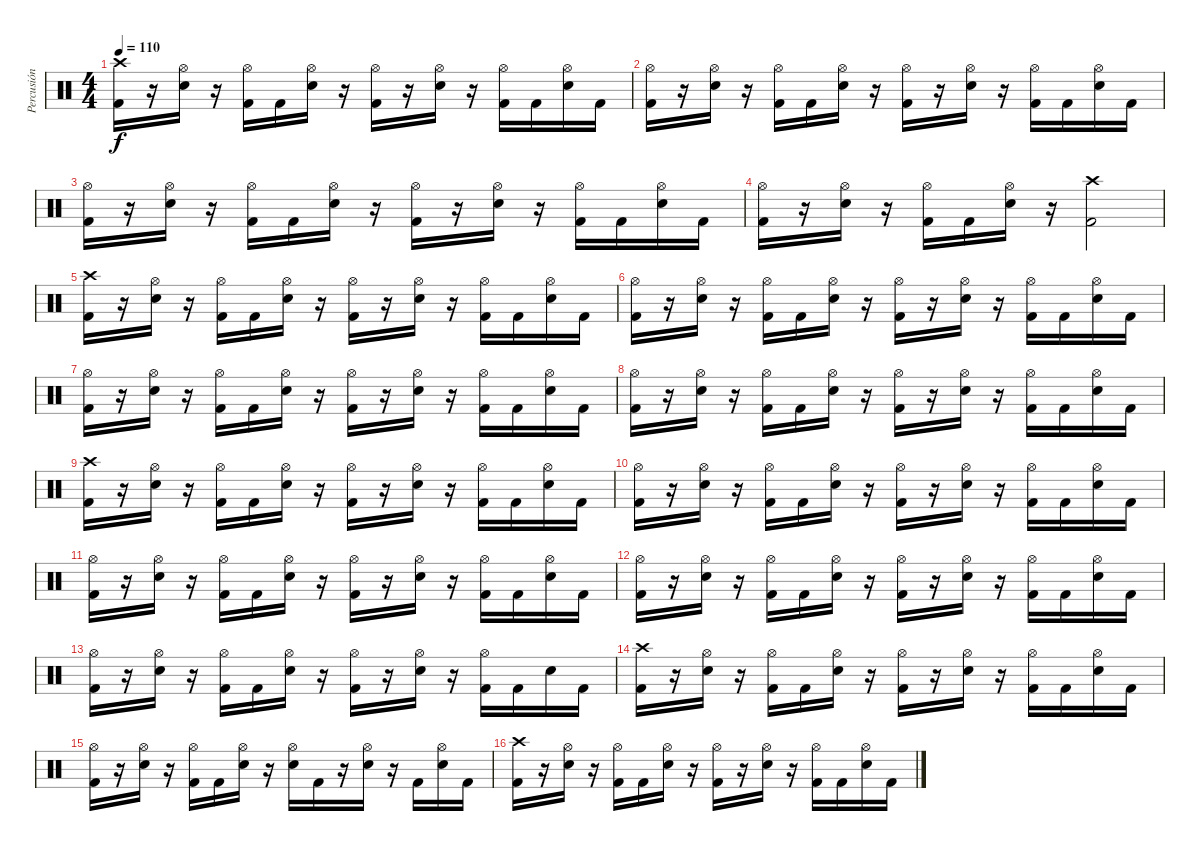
\track ("Percusión" "Percusión") {instrument percussion}
\staff {score}
\articulation defaults
\ts (4 4)
\tempo 110
\clef neutral
\ks c
("Crash high (hit)" "Kick (hit) 2").16{dy f} r.16 ("Hi-Hat (open)" "Electric Snare (hit)").16 r.16 ("Hi-Hat (open)" "Kick (hit) 2").16 "Kick (hit) 2".16 ("Hi-Hat (open)" "Electric Snare (hit)").16 r.16 ("Hi-Hat (open)" "Kick (hit) 2").16 r.16 ("Hi-Hat (open)" "Electric Snare (hit)").16 r.16 ("Hi-Hat (open)" "Kick (hit) 2").16 "Kick (hit) 2".16 ("Hi-Hat (open)" "Electric Snare (hit)").16 "Kick (hit) 2".16 |
("Hi-Hat (open)" "Kick (hit) 2").16 r.16 ("Hi-Hat (open)" "Electric Snare (hit)").16 r.16 ("Hi-Hat (open)" "Kick (hit) 2").16 "Kick (hit) 2".16 ("Hi-Hat (open)" "Electric Snare (hit)").16 r.16 ("Hi-Hat (open)" "Kick (hit) 2").16 r.16 ("Hi-Hat (open)" "Electric Snare (hit)").16 r.16 ("Hi-Hat (open)" "Kick (hit) 2").16 "Kick (hit) 2".16 ("Hi-Hat (open)" "Electric Snare (hit)").16 "Kick (hit) 2".16 |
("Hi-Hat (open)" "Kick (hit) 2").16 r.16 ("Hi-Hat (open)" "Electric Snare (hit)").16 r.16 ("Hi-Hat (open)" "Kick (hit) 2").16 "Kick (hit) 2".16 ("Hi-Hat (open)" "Electric Snare (hit)").16 r.16 ("Hi-Hat (open)" "Kick (hit) 2").16 r.16 ("Hi-Hat (open)" "Electric Snare (hit)").16 r.16 ("Hi-Hat (open)" "Kick (hit) 2").16 "Kick (hit) 2".16 ("Hi-Hat (open)" "Electric Snare (hit)").16 "Kick (hit) 2".16 |
("Hi-Hat (open)" "Kick (hit) 2").16 r.16 ("Hi-Hat (open)" "Electric Snare (hit)").16 r.16 ("Hi-Hat (open)" "Kick (hit) 2").16 "Kick (hit) 2".16 ("Hi-Hat (open)" "Electric Snare (hit)").16 r.16 ("Crash high (hit)" "Kick (hit) 2").2 |
("Crash high (hit)" "Kick (hit) 2").16 r.16 ("Hi-Hat (open)" "Electric Snare (hit)").16 r.16 ("Hi-Hat (open)" "Kick (hit) 2").16 "Kick (hit) 2".16 ("Hi-Hat (open)" "Electric Snare (hit)").16 r.16 ("Hi-Hat (open)" "Kick (hit) 2").16 r.16 ("Hi-Hat (open)" "Electric Snare (hit)").16 r.16 ("Hi-Hat (open)" "Kick (hit) 2").16 "Kick (hit) 2".16 ("Hi-Hat (open)" "Electric Snare (hit)").16 "Kick (hit) 2".16 |
("Hi-Hat (open)" "Kick (hit) 2").16 r.16 ("Hi-Hat (open)" "Electric Snare (hit)").16 r.16 ("Hi-Hat (open)" "Kick (hit) 2").16 "Kick (hit) 2".16 ("Hi-Hat (open)" "Electric Snare (hit)").16 r.16 ("Hi-Hat (open)" "Kick (hit) 2").16 r.16 ("Hi-Hat (open)" "Electric Snare (hit)").16 r.16 ("Hi-Hat (open)" "Kick (hit) 2").16 "Kick (hit) 2".16 ("Hi-Hat (open)" "Electric Snare (hit)").16 "Kick (hit) 2".16 |
("Hi-Hat (open)" "Kick (hit) 2").16 r.16 ("Hi-Hat (open)" "Electric Snare (hit)").16 r.16 ("Hi-Hat (open)" "Kick (hit) 2").16 "Kick (hit) 2".16 ("Hi-Hat (open)" "Electric Snare (hit)").16 r.16 ("Hi-Hat (open)" "Kick (hit) 2").16 r.16 ("Hi-Hat (open)" "Electric Snare (hit)").16 r.16 ("Hi-Hat (open)" "Kick (hit) 2").16 "Kick (hit) 2".16 ("Hi-Hat (open)" "Electric Snare (hit)").16 "Kick (hit) 2".16 |
("Hi-Hat (open)" "Kick (hit) 2").16 r.16 ("Hi-Hat (open)" "Electric Snare (hit)").16 r.16 ("Hi-Hat (open)" "Kick (hit) 2").16 "Kick (hit) 2".16 ("Hi-Hat (open)" "Electric Snare (hit)").16 r.16 ("Hi-Hat (open)" "Kick (hit) 2").16 r.16 ("Hi-Hat (open)" "Electric Snare (hit)").16 r.16 ("Hi-Hat (open)" "Kick (hit) 2").16 "Kick (hit) 2".16 ("Hi-Hat (open)" "Electric Snare (hit)").16 "Kick (hit) 2".16 |
("Crash high (hit)" "Kick (hit) 2").16 r.16 ("Hi-Hat (open)" "Electric Snare (hit)").16 r.16 ("Hi-Hat (open)" "Kick (hit) 2").16 "Kick (hit) 2".16 ("Hi-Hat (open)" "Electric Snare (hit)").16 r.16 ("Hi-Hat (open)" "Kick (hit) 2").16 r.16 ("Hi-Hat (open)" "Electric Snare (hit)").16 r.16 ("Hi-Hat (open)" "Kick (hit) 2").16 "Kick (hit) 2".16 ("Hi-Hat (open)" "Electric Snare (hit)").16 "Kick (hit) 2".16 |
("Hi-Hat (open)" "Kick (hit) 2").16 r.16 ("Hi-Hat (open)" "Electric Snare (hit)").16 r.16 ("Hi-Hat (open)" "Kick (hit) 2").16 "Kick (hit) 2".16 ("Hi-Hat (open)" "Electric Snare (hit)").16 r.16 ("Hi-Hat (open)" "Kick (hit) 2").16 r.16 ("Hi-Hat (open)" "Electric Snare (hit)").16 r.16 ("Hi-Hat (open)" "Kick (hit) 2").16 "Kick (hit) 2".16 ("Hi-Hat (open)" "Electric Snare (hit)").16 "Kick (hit) 2".16 |
("Hi-Hat (open)" "Kick (hit) 2").16 r.16 ("Hi-Hat (open)" "Electric Snare (hit)").16 r.16 ("Hi-Hat (open)" "Kick (hit) 2").16 "Kick (hit) 2".16 ("Hi-Hat (open)" "Electric Snare (hit)").16 r.16 ("Hi-Hat (open)" "Kick (hit) 2").16 r.16 ("Hi-Hat (open)" "Electric Snare (hit)").16 r.16 ("Hi-Hat (open)" "Kick (hit) 2").16 "Kick (hit) 2".16 ("Hi-Hat (open)" "Electric Snare (hit)").16 "Kick (hit) 2".16 |
("Hi-Hat (open)" "Kick (hit) 2").16 r.16 ("Hi-Hat (open)" "Electric Snare (hit)").16 r.16 ("Hi-Hat (open)" "Kick (hit) 2").16 "Kick (hit) 2".16 ("Hi-Hat (open)" "Electric Snare (hit)").16 r.16 ("Hi-Hat (open)" "Kick (hit) 2").16 r.16 ("Hi-Hat (open)" "Electric Snare (hit)").16 r.16 ("Hi-Hat (open)" "Kick (hit) 2").16 "Kick (hit) 2".16 ("Hi-Hat (open)" "Electric Snare (hit)").16 "Kick (hit) 2".16 |
("Hi-Hat (open)" "Kick (hit) 2").16 r.16 ("Hi-Hat (open)" "Electric Snare (hit)").16 r.16 ("Hi-Hat (open)" "Kick (hit) 2").16 "Kick (hit) 2".16 ("Hi-Hat (open)" "Electric Snare (hit)").16 r.16 ("Hi-Hat (open)" "Kick (hit) 2").16 r.16 ("Hi-Hat (open)" "Electric Snare (hit)").16 r.16 ("Hi-Hat (open)" "Kick (hit) 2").16 "Kick (hit) 2".16 "Electric Snare (hit)".16 "Kick (hit) 2".16 |
("Crash high (hit)" "Kick (hit) 2").16 r.16 ("Hi-Hat (open)" "Electric Snare (hit)").16 r.16 ("Hi-Hat (open)" "Kick (hit) 2").16 "Kick (hit) 2".16 ("Hi-Hat (open)" "Electric Snare (hit)").16 r.16 ("Hi-Hat (open)" "Kick (hit) 2").16 r.16 ("Hi-Hat (open)" "Electric Snare (hit)").16 r.16 ("Hi-Hat (open)" "Kick (hit) 2").16 "Kick (hit) 2".16 ("Hi-Hat (open)" "Electric Snare (hit)").16 "Kick (hit) 2".16 |
("Hi-Hat (open)" "Kick (hit) 2").16 r.16 ("Hi-Hat (open)" "Electric Snare (hit)").16 r.16 ("Hi-Hat (open)" "Kick (hit) 2").16 "Kick (hit) 2".16 ("Hi-Hat (open)" "Electric Snare (hit)").16 r.16 ("Hi-Hat (open)" "Electric Snare (hit)").16 "Kick (hit) 2".16 r.16 ("Hi-Hat (open)" "Electric Snare (hit)").16 r.16 "Kick (hit) 2".16 ("Hi-Hat (open)" "Electric Snare (hit)").16 "Kick (hit) 2".16 |
("Crash high (hit)" "Kick (hit) 2").16 r.16 ("Hi-Hat (open)" "Electric Snare (hit)").16 r.16 ("Hi-Hat (open)" "Kick (hit) 2").16 "Kick (hit) 2".16 ("Hi-Hat (open)" "Electric Snare (hit)").16 r.16 ("Hi-Hat (open)" "Kick (hit) 2").16 r.16 ("Hi-Hat (open)" "Electric Snare (hit)").16 r.16 ("Hi-Hat (open)" "Kick (hit) 2").16 "Kick (hit) 2".16 ("Hi-Hat (open)" "Electric Snare (hit)").16 "Kick (hit) 2".16
